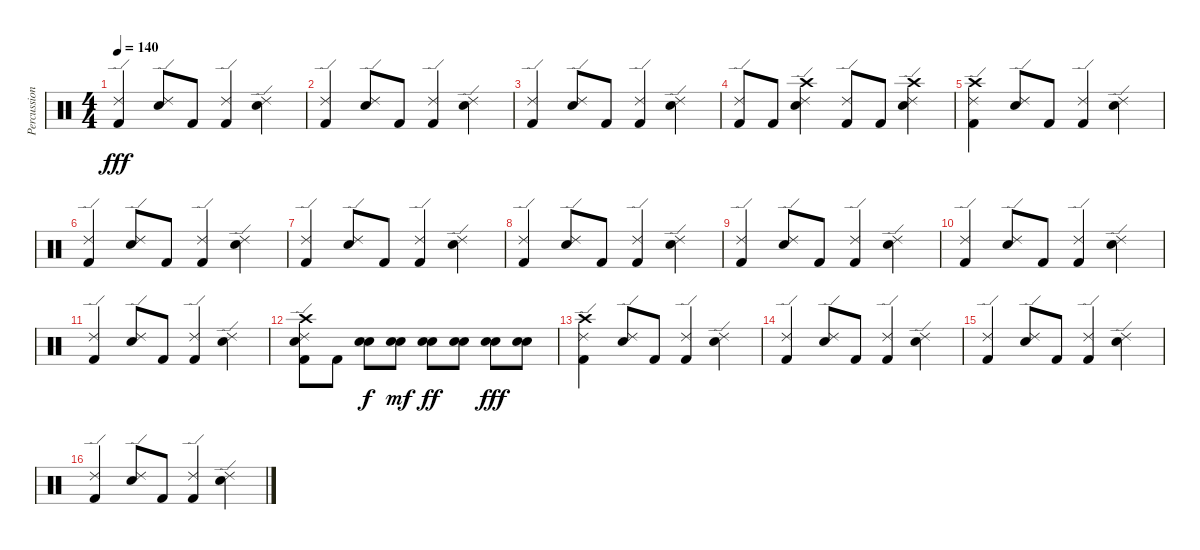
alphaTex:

\track ("Percussion" "Percussion") {instrument percussion}
\staff {score}
\articulation defaults
\ts (4 4)
\tempo 140
\clef neutral
\ks c
("Ride (edge) 2" "Kick (hit) 2").4{dy fff} ("Ride (edge) 2" "Electric Snare (hit)").8 "Kick (hit) 2".8 ("Ride (edge) 2" "Kick (hit) 2").4 ("Ride (edge) 2" "Electric Snare (hit)").4 |
("Ride (edge) 2" "Kick (hit) 2").4 ("Ride (edge) 2" "Electric Snare (hit)").8 "Kick (hit) 2".8 ("Ride (edge) 2" "Kick (hit) 2").4 ("Ride (edge) 2" "Electric Snare (hit)").4 |
("Ride (edge) 2" "Kick (hit) 2").4 ("Ride (edge) 2" "Electric Snare (hit)").8 "Kick (hit) 2".8 ("Ride (edge) 2" "Kick (hit) 2").4 ("Ride (edge) 2" "Electric Snare (hit)").4 |
("Ride (edge) 2" "Kick (hit) 2").8 "Kick (hit) 2".8 ("Crash high (hit)" "Ride (edge) 2" "Electric Snare (hit)").4 ("Ride (edge) 2" "Kick (hit) 2").8 "Kick (hit) 2".8 ("Crash high (hit)" "Ride (edge) 2" "Electric Snare (hit)").4 |
("Crash high (hit)" "Ride (edge) 2" "Kick (hit) 2").4 ("Ride (edge) 2" "Electric Snare (hit)").8 "Kick (hit) 2".8 ("Ride (edge) 2" "Kick (hit) 2").4 ("Ride (edge) 2" "Electric Snare (hit)").4 |
("Ride (edge) 2" "Kick (hit) 2").4 ("Ride (edge) 2" "Electric Snare (hit)").8 "Kick (hit) 2".8 ("Ride (edge) 2" "Kick (hit) 2").4 ("Ride (edge) 2" "Electric Snare (hit)").4 |
("Ride (edge) 2" "Kick (hit) 2").4 ("Ride (edge) 2" "Electric Snare (hit)").8 "Kick (hit) 2".8 ("Ride (edge) 2" "Kick (hit) 2").4 ("Ride (edge) 2" "Electric Snare (hit)").4 |
("Ride (edge) 2" "Kick (hit) 2").4 ("Ride (edge) 2" "Electric Snare (hit)").8 "Kick (hit) 2".8 ("Ride (edge) 2" "Kick (hit) 2").4 ("Ride (edge) 2" "Electric Snare (hit)").4 |
("Ride (edge) 2" "Kick (hit) 2").4 ("Ride (edge) 2" "Electric Snare (hit)").8 "Kick (hit) 2".8 ("Ride (edge) 2" "Kick (hit) 2").4 ("Ride (edge) 2" "Electric Snare (hit)").4 |
("Ride (edge) 2" "Kick (hit) 2").4 ("Ride (edge) 2" "Electric Snare (hit)").8 "Kick (hit) 2".8 ("Ride (edge) 2" "Kick (hit) 2").4 ("Ride (edge) 2" "Electric Snare (hit)").4 |
("Ride (edge) 2" "Kick (hit) 2").4 ("Ride (edge) 2" "Electric Snare (hit)").8 "Kick (hit) 2".8 ("Ride (edge) 2" "Kick (hit) 2").4 ("Ride (edge) 2" "Electric Snare (hit)").4 |
("Crash high (hit)" "Ride (edge) 2" "Electric Snare (hit)" "Kick (hit) 2").8 "Kick (hit) 2".8 ("Electric Snare (hit)" "Electric Snare (hit)").8{dy f} ("Electric Snare (hit)" "Electric Snare (hit)").8{dy mf} ("Electric Snare (hit)" "Electric Snare (hit)").8{dy ff} ("Electric Snare (hit)" "Electric Snare (hit)").8 ("Electric Snare (hit)" "Electric Snare (hit)").8{dy fff} ("Electric Snare (hit)" "Electric Snare (hit)").8 |
("Crash high (hit)" "Ride (edge) 2" "Kick (hit) 2").4 ("Ride (edge) 2" "Electric Snare (hit)").8 "Kick (hit) 2".8 ("Ride (edge) 2" "Kick (hit) 2").4 ("Ride (edge) 2" "Electric Snare (hit)").4 |
("Ride (edge) 2" "Kick (hit) 2").4 ("Ride (edge) 2" "Electric Snare (hit)").8 "Kick (hit) 2".8 ("Ride (edge) 2" "Kick (hit) 2").4 ("Ride (edge) 2" "Electric Snare (hit)").4 |
("Ride (edge) 2" "Kick (hit) 2").4 ("Ride (edge) 2" "Electric Snare (hit)").8 "Kick (hit) 2".8 ("Ride (edge) 2" "Kick (hit) 2").4 ("Ride (edge) 2" "Electric Snare (hit)").4 |
("Ride (edge) 2" "Kick (hit) 2").4 ("Ride (edge) 2" "Electric Snare (hit)").8 "Kick (hit) 2".8 ("Ride (edge) 2" "Kick (hit) 2").4 ("Ride (edge) 2" "Electric Snare (hit)").4
